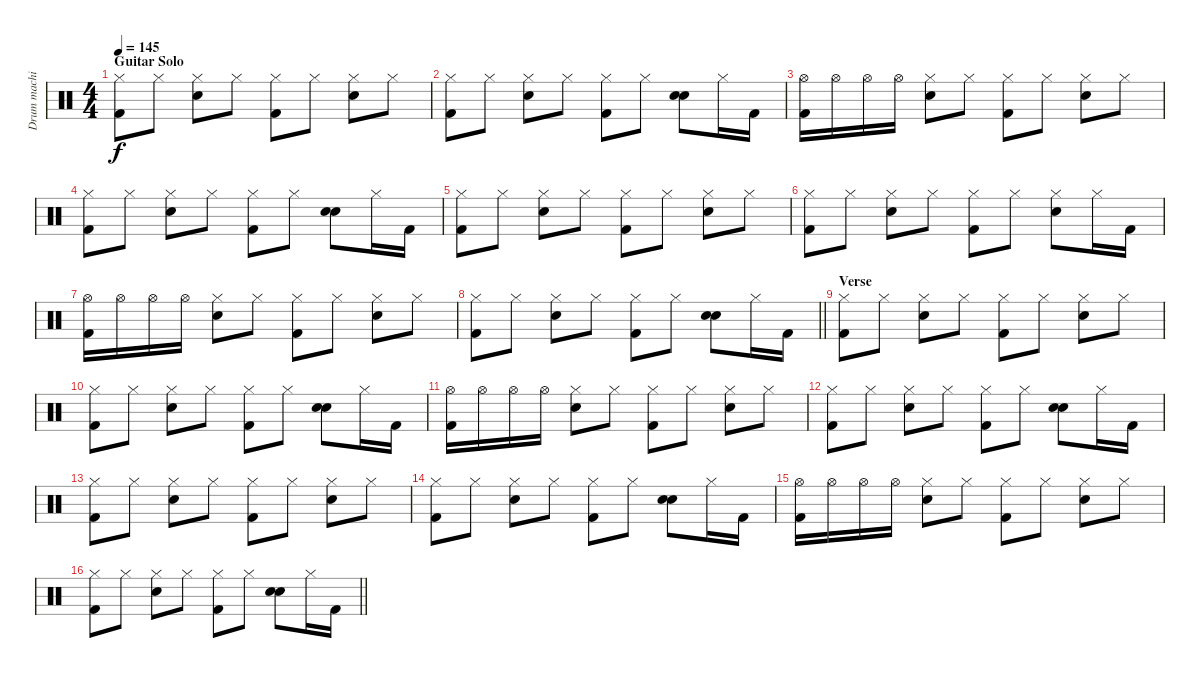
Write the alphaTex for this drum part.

\track ("Drum machine" "Drum machi") {instrument percussion}
\staff {score}
\articulation defaults
\ts (4 4)
\section ("" "Guitar Solo")
\tempo 145
\clef neutral
\ks c
("Hi-Hat (closed)" "Kick (hit) 2").8{dy f} "Hi-Hat (closed)".8 ("Hi-Hat (closed)" "Electric Snare (hit)").8 "Hi-Hat (closed)".8 ("Hi-Hat (closed)" "Kick (hit) 2").8 "Hi-Hat (closed)".8 ("Hi-Hat (closed)" "Electric Snare (hit)").8 "Hi-Hat (closed)".8 |
("Hi-Hat (closed)" "Kick (hit) 2").8 "Hi-Hat (closed)".8 ("Hi-Hat (closed)" "Electric Snare (hit)").8 "Hi-Hat (closed)".8 ("Hi-Hat (closed)" "Kick (hit) 2").8 "Hi-Hat (closed)".8 ("Snare (hit) 2" "Electric Snare (hit)").8 "Hi-Hat (closed)".16 "Kick (hit) 2".16 |
("Hi-Hat (open)" "Kick (hit) 2").16 "Hi-Hat (open)".16 "Hi-Hat (open)".16 "Hi-Hat (open)".16 ("Hi-Hat (closed)" "Electric Snare (hit)").8 "Hi-Hat (closed)".8 ("Hi-Hat (closed)" "Kick (hit) 2").8 "Hi-Hat (closed)".8 ("Hi-Hat (closed)" "Electric Snare (hit)").8 "Hi-Hat (closed)".8 |
("Hi-Hat (closed)" "Kick (hit) 2").8 "Hi-Hat (closed)".8 ("Hi-Hat (closed)" "Electric Snare (hit)").8 "Hi-Hat (closed)".8 ("Hi-Hat (closed)" "Kick (hit) 2").8 "Hi-Hat (closed)".8 ("Snare (hit) 2" "Electric Snare (hit)").8 "Hi-Hat (closed)".16 "Kick (hit) 2".16 |
("Hi-Hat (closed)" "Kick (hit) 2").8 "Hi-Hat (closed)".8 ("Hi-Hat (closed)" "Electric Snare (hit)").8 "Hi-Hat (closed)".8 ("Hi-Hat (closed)" "Kick (hit) 2").8 "Hi-Hat (closed)".8 ("Hi-Hat (closed)" "Electric Snare (hit)").8 "Hi-Hat (closed)".8 |
("Hi-Hat (closed)" "Kick (hit) 2").8 "Hi-Hat (closed)".8 ("Hi-Hat (closed)" "Electric Snare (hit)").8 "Hi-Hat (closed)".8 ("Hi-Hat (closed)" "Kick (hit) 2").8 "Hi-Hat (closed)".8 ("Hi-Hat (closed)" "Electric Snare (hit)").8 "Hi-Hat (closed)".16 "Kick (hit) 2".16 |
("Hi-Hat (open)" "Kick (hit) 2").16 "Hi-Hat (open)".16 "Hi-Hat (open)".16 "Hi-Hat (open)".16 ("Hi-Hat (closed)" "Electric Snare (hit)").8 "Hi-Hat (closed)".8 ("Hi-Hat (closed)" "Kick (hit) 2").8 "Hi-Hat (closed)".8 ("Hi-Hat (closed)" "Electric Snare (hit)").8 "Hi-Hat (closed)".8 |
\barLineRight lightlight
("Hi-Hat (closed)" "Kick (hit) 2").8 "Hi-Hat (closed)".8 ("Hi-Hat (closed)" "Electric Snare (hit)").8 "Hi-Hat (closed)".8 ("Hi-Hat (closed)" "Kick (hit) 2").8 "Hi-Hat (closed)".8 ("Snare (hit) 2" "Electric Snare (hit)").8 "Hi-Hat (closed)".16 "Kick (hit) 2".16 |
\section ("" "Verse")
("Hi-Hat (closed)" "Kick (hit) 2").8 "Hi-Hat (closed)".8 ("Hi-Hat (closed)" "Electric Snare (hit)").8 "Hi-Hat (closed)".8 ("Hi-Hat (closed)" "Kick (hit) 2").8 "Hi-Hat (closed)".8 ("Hi-Hat (closed)" "Electric Snare (hit)").8 "Hi-Hat (closed)".8 |
("Hi-Hat (closed)" "Kick (hit) 2").8 "Hi-Hat (closed)".8 ("Hi-Hat (closed)" "Electric Snare (hit)").8 "Hi-Hat (closed)".8 ("Hi-Hat (closed)" "Kick (hit) 2").8 "Hi-Hat (closed)".8 ("Snare (hit) 2" "Electric Snare (hit)").8 "Hi-Hat (closed)".16 "Kick (hit) 2".16 |
("Hi-Hat (open)" "Kick (hit) 2").16 "Hi-Hat (open)".16 "Hi-Hat (open)".16 "Hi-Hat (open)".16 ("Hi-Hat (closed)" "Electric Snare (hit)").8 "Hi-Hat (closed)".8 ("Hi-Hat (closed)" "Kick (hit) 2").8 "Hi-Hat (closed)".8 ("Hi-Hat (closed)" "Electric Snare (hit)").8 "Hi-Hat (closed)".8 |
("Hi-Hat (closed)" "Kick (hit) 2").8 "Hi-Hat (closed)".8 ("Hi-Hat (closed)" "Electric Snare (hit)").8 "Hi-Hat (closed)".8 ("Hi-Hat (closed)" "Kick (hit) 2").8 "Hi-Hat (closed)".8 ("Snare (hit) 2" "Electric Snare (hit)").8 "Hi-Hat (closed)".16 "Kick (hit) 2".16 |
("Hi-Hat (closed)" "Kick (hit) 2").8 "Hi-Hat (closed)".8 ("Hi-Hat (closed)" "Electric Snare (hit)").8 "Hi-Hat (closed)".8 ("Hi-Hat (closed)" "Kick (hit) 2").8 "Hi-Hat (closed)".8 ("Hi-Hat (closed)" "Electric Snare (hit)").8 "Hi-Hat (closed)".8 |
("Hi-Hat (closed)" "Kick (hit) 2").8 "Hi-Hat (closed)".8 ("Hi-Hat (closed)" "Electric Snare (hit)").8 "Hi-Hat (closed)".8 ("Hi-Hat (closed)" "Kick (hit) 2").8 "Hi-Hat (closed)".8 ("Snare (hit) 2" "Electric Snare (hit)").8 "Hi-Hat (closed)".16 "Kick (hit) 2".16 |
("Hi-Hat (open)" "Kick (hit) 2").16 "Hi-Hat (open)".16 "Hi-Hat (open)".16 "Hi-Hat (open)".16 ("Hi-Hat (closed)" "Electric Snare (hit)").8 "Hi-Hat (closed)".8 ("Hi-Hat (closed)" "Kick (hit) 2").8 "Hi-Hat (closed)".8 ("Hi-Hat (closed)" "Electric Snare (hit)").8 "Hi-Hat (closed)".8 |
\barLineRight lightlight
("Hi-Hat (closed)" "Kick (hit) 2").8 "Hi-Hat (closed)".8 ("Hi-Hat (closed)" "Electric Snare (hit)").8 "Hi-Hat (closed)".8 ("Hi-Hat (closed)" "Kick (hit) 2").8 "Hi-Hat (closed)".8 ("Snare (hit) 2" "Electric Snare (hit)").8 "Hi-Hat (closed)".16 "Kick (hit) 2".16
